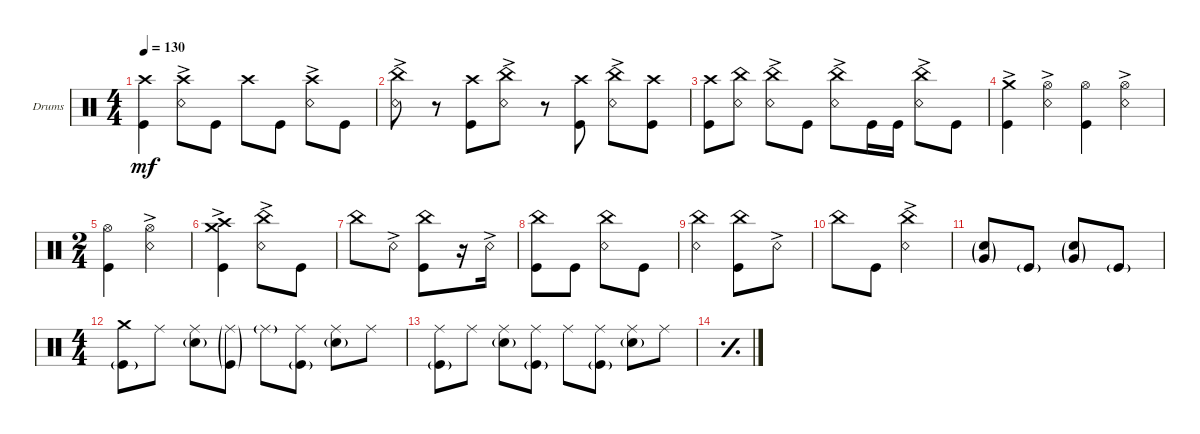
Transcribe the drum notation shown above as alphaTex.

\defaultSystemsLayout 4
\bracketExtendMode groupsimilarinstruments
\firstSystemTrackNameOrientation horizontal
\otherSystemsTrackNameOrientation horizontal
\track ("Drumkit" "Drums") {instrument percussion}
\staff {score}
\articulation defaults
\ts (4 4)
\tempo 130
\clef neutral
\ks c
("Crash high (hit)" "Kick (hit)").4{dy mf} ("Crash high (hit)" "Snare (rim shot)"{ac}).8 "Kick (hit)".8 "Crash high (hit)".8 "Kick (hit)".8 ("Crash high (hit)" "Snare (rim shot)"{ac}).8 "Kick (hit)".8 |
("China (hit)" "Snare (rim shot)"{ac}).8 r.8 ("Kick (hit)" "Crash high (hit)").8 ("China (hit)" "Snare (rim shot)"{ac}).8 r.8 ("Kick (hit)" "Crash high (hit)").8 ("China (hit)" "Snare (rim shot)"{ac}).8 ("Kick (hit)" "Crash high (hit)").8 |
("Kick (hit)" "Crash high (hit)").8 ("China (hit)" "Snare (rim shot)").8 ("China (hit)" "Snare (rim shot)"{ac}).8 "Kick (hit)".8 ("China (hit)" "Snare (rim shot)"{ac}).8 "Kick (hit)".16 "Kick (hit)".16 ("China (hit)" "Snare (rim shot)"{ac}).8 "Kick (hit)".8 |
("Crash medium (hit)"{ac} "Kick (hit)").4 ("Hi-Hat (open)" "Snare (rim shot)"{ac}).4 ("Hi-Hat (open)" "Kick (hit)").4 ("Hi-Hat (open)" "Snare (rim shot)"{ac}).4 |
\ts (2 4)
("Hi-Hat (open)" "Kick (hit)").4 ("Hi-Hat (open)" "Snare (rim shot)"{ac}).4 |
("Kick (hit)" "Crash medium (hit)"{ac} "Crash high (hit)").4 ("China (hit)" "Snare (rim shot)"{ac}).8 "Kick (hit)".8 |
"China (hit)".8 "Snare (rim shot)"{ac}.8 ("China (hit)" "Kick (hit)").8 r.16 "Snare (rim shot)"{ac}.16 |
("China (hit)" "Kick (hit)").8 "Kick (hit)".8 ("China (hit)" "Snare (rim shot)").8 "Kick (hit)".8 |
("China (hit)" "Snare (rim shot)").4 ("Kick (hit)" "China (hit)").8 "Snare (rim shot)"{ac}.8 |
"China (hit)".8 "Kick (hit)".8 ("China (hit)" "Snare (rim shot)"{ac}).4 |
("Snare (hit) 2"{g} "Very Low Tom (hit)"{g}).8 "Kick (hit)"{g}.8 ("Snare (hit) 2"{g} "Very Low Tom (hit)"{g}).8 "Kick (hit)"{g}.8 |
\ts (4 4)
("Crash medium (hit)" "Kick (hit)"{g}).8 "Ride (middle)".8 ("Ride (middle)" "Snare (hit) 2"{g}).8 ("Ride (middle)"{g} "Kick (hit)"{g}).8 "Ride (middle)"{g}.8 ("Ride (middle)" "Kick (hit)"{g}).8 ("Snare (hit) 2"{g} "Ride (middle)").8 "Ride (middle)".8 |
("Kick (hit)"{g} "Ride (middle)").8 "Ride (middle)".8 ("Ride (middle)" "Snare (hit) 2"{g}).8 ("Ride (middle)" "Kick (hit)"{g}).8 "Ride (middle)".8 ("Ride (middle)" "Kick (hit)"{g}).8 ("Snare (hit) 2"{g} "Ride (middle)").8 "Ride (middle)".8 |
\simile simple
